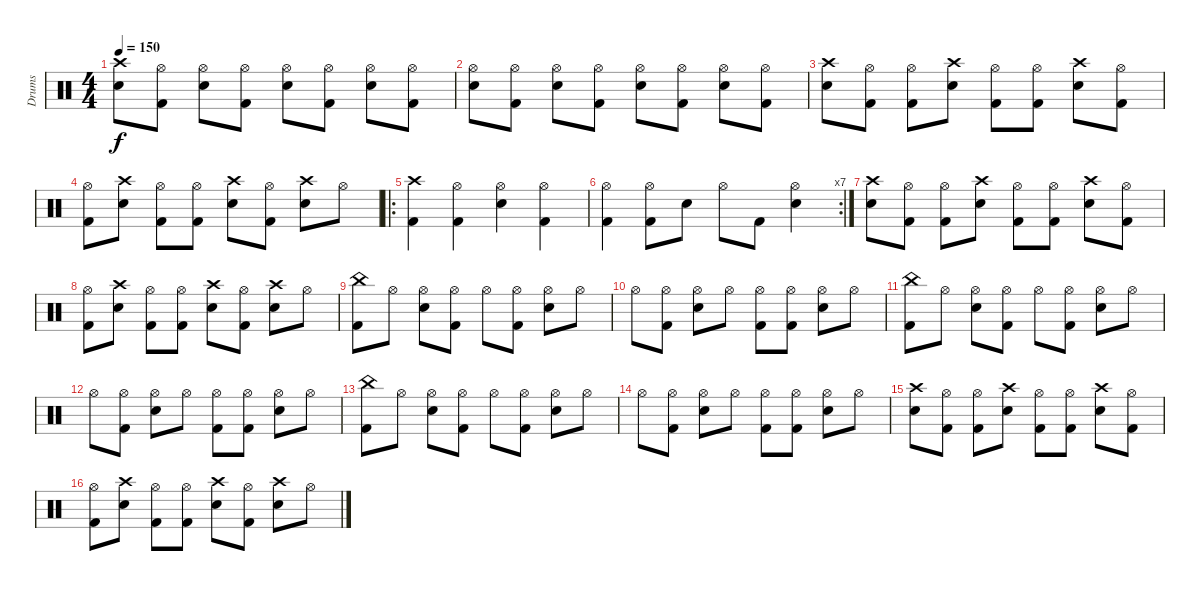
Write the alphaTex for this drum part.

\track ("Drums" "Drums") {instrument percussion}
\staff {score}
\articulation defaults
\ts (4 4)
\tempo 150
\clef neutral
\ks c
("Crash high (hit)" "Snare (hit) 2").8{dy f} ("Hi-Hat (open)" "Kick (hit) 2").8 ("Hi-Hat (open)" "Snare (hit) 2").8 ("Hi-Hat (open)" "Kick (hit) 2").8 ("Hi-Hat (open)" "Snare (hit) 2").8 ("Hi-Hat (open)" "Kick (hit) 2").8 ("Hi-Hat (open)" "Snare (hit) 2").8 ("Hi-Hat (open)" "Kick (hit) 2").8 |
("Hi-Hat (open)" "Snare (hit) 2").8 ("Hi-Hat (open)" "Kick (hit) 2").8 ("Hi-Hat (open)" "Snare (hit) 2").8 ("Hi-Hat (open)" "Kick (hit) 2").8 ("Hi-Hat (open)" "Snare (hit) 2").8 ("Hi-Hat (open)" "Kick (hit) 2").8 ("Hi-Hat (open)" "Snare (hit) 2").8 ("Hi-Hat (open)" "Kick (hit) 2").8 |
("Crash high (hit)" "Snare (hit) 2").8 ("Hi-Hat (open)" "Kick (hit) 2").8 ("Hi-Hat (open)" "Kick (hit) 2").8 ("Crash high (hit)" "Snare (hit) 2").8 ("Hi-Hat (open)" "Kick (hit) 2").8 ("Hi-Hat (open)" "Kick (hit) 2").8 ("Crash high (hit)" "Snare (hit) 2").8 ("Hi-Hat (open)" "Kick (hit) 2").8 |
("Hi-Hat (open)" "Kick (hit) 2").8 ("Crash high (hit)" "Snare (hit) 2").8 ("Hi-Hat (open)" "Kick (hit) 2").8 ("Hi-Hat (open)" "Kick (hit) 2").8 ("Crash high (hit)" "Snare (hit) 2").8 ("Hi-Hat (open)" "Kick (hit) 2").8 ("Crash high (hit)" "Snare (hit) 2").8 "Hi-Hat (open)".8 |
\ro
("Crash high (hit)" "Kick (hit) 2").4 ("Hi-Hat (open)" "Kick (hit) 2").4 ("Hi-Hat (open)" "Snare (hit) 2").4 ("Hi-Hat (open)" "Kick (hit) 2").4 |
\rc 7
("Hi-Hat (open)" "Kick (hit) 2").4 ("Hi-Hat (open)" "Kick (hit) 2").8 "Snare (hit) 2".8 "Hi-Hat (open)".8 "Kick (hit) 2".8 ("Hi-Hat (open)" "Snare (hit) 2").4 |
("Crash high (hit)" "Snare (hit) 2").8 ("Hi-Hat (open)" "Kick (hit) 2").8 ("Hi-Hat (open)" "Kick (hit) 2").8 ("Crash high (hit)" "Snare (hit) 2").8 ("Hi-Hat (open)" "Kick (hit) 2").8 ("Hi-Hat (open)" "Kick (hit) 2").8 ("Crash high (hit)" "Snare (hit) 2").8 ("Hi-Hat (open)" "Kick (hit) 2").8 |
("Hi-Hat (open)" "Kick (hit) 2").8 ("Crash high (hit)" "Snare (hit) 2").8 ("Hi-Hat (open)" "Kick (hit) 2").8 ("Hi-Hat (open)" "Kick (hit) 2").8 ("Crash high (hit)" "Snare (hit) 2").8 ("Hi-Hat (open)" "Kick (hit) 2").8 ("Crash high (hit)" "Snare (hit) 2").8 "Hi-Hat (open)".8 |
("China (hit)" "Kick (hit) 2").8 "Hi-Hat (open)".8 ("Hi-Hat (open)" "Snare (hit) 2").8 ("Hi-Hat (open)" "Kick (hit) 2").8 "Hi-Hat (open)".8 ("Hi-Hat (open)" "Kick (hit) 2").8 ("Hi-Hat (open)" "Snare (hit) 2").8 "Hi-Hat (open)".8 |
"Hi-Hat (open)".8 ("Hi-Hat (open)" "Kick (hit) 2").8 ("Hi-Hat (open)" "Snare (hit) 2").8 "Hi-Hat (open)".8 ("Hi-Hat (open)" "Kick (hit) 2").8 ("Hi-Hat (open)" "Kick (hit) 2").8 ("Hi-Hat (open)" "Snare (hit) 2").8 "Hi-Hat (open)".8 |
("China (hit)" "Kick (hit) 2").8 "Hi-Hat (open)".8 ("Hi-Hat (open)" "Snare (hit) 2").8 ("Hi-Hat (open)" "Kick (hit) 2").8 "Hi-Hat (open)".8 ("Hi-Hat (open)" "Kick (hit) 2").8 ("Hi-Hat (open)" "Snare (hit) 2").8 "Hi-Hat (open)".8 |
"Hi-Hat (open)".8 ("Hi-Hat (open)" "Kick (hit) 2").8 ("Hi-Hat (open)" "Snare (hit) 2").8 "Hi-Hat (open)".8 ("Hi-Hat (open)" "Kick (hit) 2").8 ("Hi-Hat (open)" "Kick (hit) 2").8 ("Hi-Hat (open)" "Snare (hit) 2").8 "Hi-Hat (open)".8 |
("China (hit)" "Kick (hit) 2").8 "Hi-Hat (open)".8 ("Hi-Hat (open)" "Snare (hit) 2").8 ("Hi-Hat (open)" "Kick (hit) 2").8 "Hi-Hat (open)".8 ("Hi-Hat (open)" "Kick (hit) 2").8 ("Hi-Hat (open)" "Snare (hit) 2").8 "Hi-Hat (open)".8 |
"Hi-Hat (open)".8 ("Hi-Hat (open)" "Kick (hit) 2").8 ("Hi-Hat (open)" "Snare (hit) 2").8 "Hi-Hat (open)".8 ("Hi-Hat (open)" "Kick (hit) 2").8 ("Hi-Hat (open)" "Kick (hit) 2").8 ("Hi-Hat (open)" "Snare (hit) 2").8 "Hi-Hat (open)".8 |
("Crash high (hit)" "Snare (hit) 2").8 ("Hi-Hat (open)" "Kick (hit) 2").8 ("Hi-Hat (open)" "Kick (hit) 2").8 ("Crash high (hit)" "Snare (hit) 2").8 ("Hi-Hat (open)" "Kick (hit) 2").8 ("Hi-Hat (open)" "Kick (hit) 2").8 ("Crash high (hit)" "Snare (hit) 2").8 ("Hi-Hat (open)" "Kick (hit) 2").8 |
("Hi-Hat (open)" "Kick (hit) 2").8 ("Crash high (hit)" "Snare (hit) 2").8 ("Hi-Hat (open)" "Kick (hit) 2").8 ("Hi-Hat (open)" "Kick (hit) 2").8 ("Crash high (hit)" "Snare (hit) 2").8 ("Hi-Hat (open)" "Kick (hit) 2").8 ("Crash high (hit)" "Snare (hit) 2").8 "Hi-Hat (open)".8
